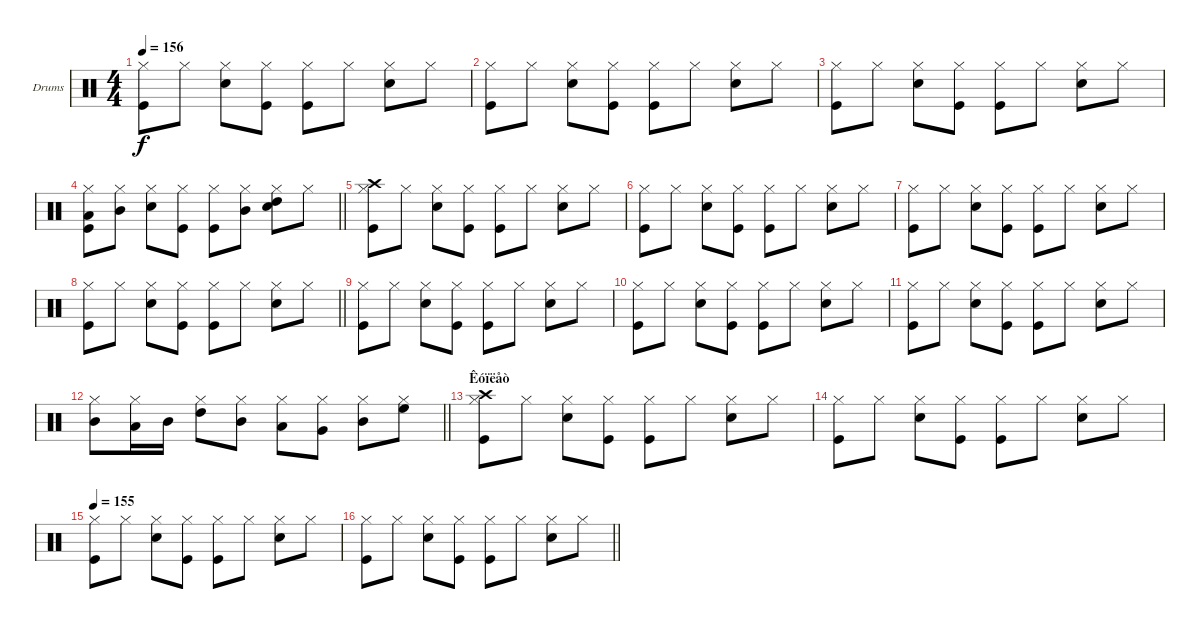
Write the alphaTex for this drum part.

\bracketExtendMode groupsimilarinstruments
\firstSystemTrackNameOrientation horizontal
\otherSystemsTrackNameOrientation horizontal
\track ("Drumkit" "Drums") {instrument percussion}
\staff {score}
\articulation defaults
\ts (4 4)
\tempo 156
\clef neutral
\ks c
("Hi-Hat (closed)" "Kick (hit)").8{dy f} "Hi-Hat (closed)".8 ("Hi-Hat (closed)" "Snare (hit) 2").8 ("Hi-Hat (closed)" "Kick (hit)").8 ("Hi-Hat (closed)" "Kick (hit)").8 "Hi-Hat (closed)".8 ("Hi-Hat (closed)" "Snare (hit) 2").8 "Hi-Hat (closed)".8 |
("Hi-Hat (closed)" "Kick (hit)").8 "Hi-Hat (closed)".8 ("Hi-Hat (closed)" "Snare (hit) 2").8 ("Hi-Hat (closed)" "Kick (hit)").8 ("Hi-Hat (closed)" "Kick (hit)").8 "Hi-Hat (closed)".8 ("Hi-Hat (closed)" "Snare (hit) 2").8 "Hi-Hat (closed)".8 |
("Hi-Hat (closed)" "Kick (hit)").8 "Hi-Hat (closed)".8 ("Hi-Hat (closed)" "Snare (hit) 2").8 ("Hi-Hat (closed)" "Kick (hit)").8 ("Hi-Hat (closed)" "Kick (hit)").8 "Hi-Hat (closed)".8 ("Hi-Hat (closed)" "Snare (hit) 2").8 "Hi-Hat (closed)".8 |
\barLineRight lightlight
("Hi-Hat (closed)" "Kick (hit)" "Low Tom (hit)").8 ("Hi-Hat (closed)" "Mid Tom (hit)").8 ("Hi-Hat (closed)" "Snare (hit) 2").8 ("Hi-Hat (closed)" "Kick (hit)").8 ("Hi-Hat (closed)" "Kick (hit)").8 ("Hi-Hat (closed)" "Mid Tom (hit)").8 ("Hi-Hat (closed)" "Snare (hit) 2" "High Tom (hit)").8 "Hi-Hat (closed)".8 |
("Hi-Hat (closed)" "Kick (hit)" "Crash high (hit)").8 "Hi-Hat (closed)".8 ("Hi-Hat (closed)" "Snare (hit) 2").8 ("Hi-Hat (closed)" "Kick (hit)").8 ("Hi-Hat (closed)" "Kick (hit)").8 "Hi-Hat (closed)".8 ("Hi-Hat (closed)" "Snare (hit) 2").8 "Hi-Hat (closed)".8 |
("Hi-Hat (closed)" "Kick (hit)").8 "Hi-Hat (closed)".8 ("Hi-Hat (closed)" "Snare (hit) 2").8 ("Hi-Hat (closed)" "Kick (hit)").8 ("Hi-Hat (closed)" "Kick (hit)").8 "Hi-Hat (closed)".8 ("Hi-Hat (closed)" "Snare (hit) 2").8 "Hi-Hat (closed)".8 |
("Hi-Hat (closed)" "Kick (hit)").8 "Hi-Hat (closed)".8 ("Hi-Hat (closed)" "Snare (hit) 2").8 ("Hi-Hat (closed)" "Kick (hit)").8 ("Hi-Hat (closed)" "Kick (hit)").8 "Hi-Hat (closed)".8 ("Hi-Hat (closed)" "Snare (hit) 2").8 "Hi-Hat (closed)".8 |
\barLineRight lightlight
("Hi-Hat (closed)" "Kick (hit)").8 "Hi-Hat (closed)".8 ("Hi-Hat (closed)" "Snare (hit) 2").8 ("Hi-Hat (closed)" "Kick (hit)").8 ("Hi-Hat (closed)" "Kick (hit)").8 "Hi-Hat (closed)".8 ("Hi-Hat (closed)" "Snare (hit) 2").8 "Hi-Hat (closed)".8 |
("Hi-Hat (closed)" "Kick (hit)").8 "Hi-Hat (closed)".8 ("Hi-Hat (closed)" "Snare (hit) 2").8 ("Hi-Hat (closed)" "Kick (hit)").8 ("Hi-Hat (closed)" "Kick (hit)").8 "Hi-Hat (closed)".8 ("Hi-Hat (closed)" "Snare (hit) 2").8 "Hi-Hat (closed)".8 |
("Hi-Hat (closed)" "Kick (hit)").8 "Hi-Hat (closed)".8 ("Hi-Hat (closed)" "Snare (hit) 2").8 ("Hi-Hat (closed)" "Kick (hit)").8 ("Hi-Hat (closed)" "Kick (hit)").8 "Hi-Hat (closed)".8 ("Hi-Hat (closed)" "Snare (hit) 2").8 "Hi-Hat (closed)".8 |
("Hi-Hat (closed)" "Kick (hit)").8 "Hi-Hat (closed)".8 ("Hi-Hat (closed)" "Snare (hit) 2").8 ("Hi-Hat (closed)" "Kick (hit)").8 ("Hi-Hat (closed)" "Kick (hit)").8 "Hi-Hat (closed)".8 ("Hi-Hat (closed)" "Snare (hit) 2").8 "Hi-Hat (closed)".8 |
\barLineRight lightlight
("Hi-Hat (closed)" "Mid Tom (hit)").8 ("Hi-Hat (closed)" "Low Tom (hit)").16 "Mid Tom (hit)".16 ("Hi-Hat (closed)" "High Tom (hit)").8 ("Hi-Hat (closed)" "Mid Tom (hit)").8 ("Hi-Hat (closed)" "Low Tom (hit)").8 ("Hi-Hat (closed)" "Very Low Tom (hit)").8 ("Hi-Hat (closed)" "Mid Tom (hit)").8 ("Hi-Hat (closed)" "High Floor Tom (hit)").8 |
\section ("" "Êóïëåò")
("Hi-Hat (closed)" "Kick (hit)" "Crash high (hit)").8 "Hi-Hat (closed)".8 ("Hi-Hat (closed)" "Snare (hit) 2").8 ("Hi-Hat (closed)" "Kick (hit)").8 ("Hi-Hat (closed)" "Kick (hit)").8 "Hi-Hat (closed)".8 ("Hi-Hat (closed)" "Snare (hit) 2").8 "Hi-Hat (closed)".8 |
("Hi-Hat (closed)" "Kick (hit)").8 "Hi-Hat (closed)".8 ("Hi-Hat (closed)" "Snare (hit) 2").8 ("Hi-Hat (closed)" "Kick (hit)").8 ("Hi-Hat (closed)" "Kick (hit)").8 "Hi-Hat (closed)".8 ("Hi-Hat (closed)" "Snare (hit) 2").8 "Hi-Hat (closed)".8 |
\tempo 155
("Hi-Hat (closed)" "Kick (hit)").8 "Hi-Hat (closed)".8 ("Hi-Hat (closed)" "Snare (hit) 2").8 ("Hi-Hat (closed)" "Kick (hit)").8 ("Hi-Hat (closed)" "Kick (hit)").8 "Hi-Hat (closed)".8 ("Hi-Hat (closed)" "Snare (hit) 2").8 "Hi-Hat (closed)".8 |
\barLineRight lightlight
("Hi-Hat (closed)" "Kick (hit)").8 "Hi-Hat (closed)".8 ("Hi-Hat (closed)" "Snare (hit) 2").8 ("Hi-Hat (closed)" "Kick (hit)").8 ("Hi-Hat (closed)" "Kick (hit)").8 "Hi-Hat (closed)".8 ("Hi-Hat (closed)" "Snare (hit) 2").8 "Hi-Hat (closed)".8
